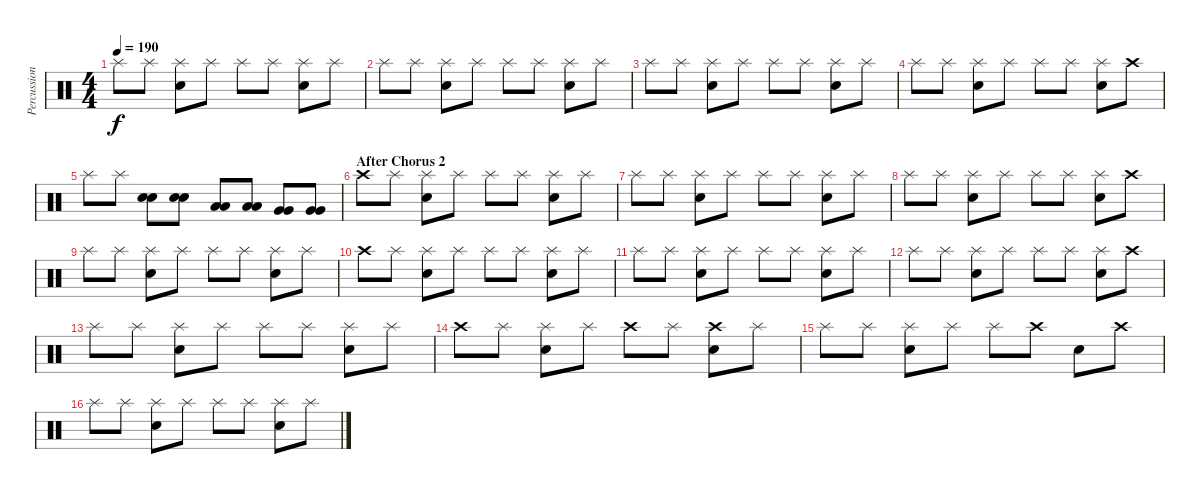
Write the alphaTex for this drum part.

\track ("Percussion" "Percussion") {instrument percussion}
\staff {score}
\articulation defaults
\ts (4 4)
\tempo 190
\clef neutral
\ks c "Splash (hit)".8{dy f} "Splash (hit)".8
("Splash (hit)" "Electric Snare (hit)").8 "Splash (hit)".8 "Splash (hit)".8 "Splash (hit)".8 ("Splash (hit)" "Electric Snare (hit)").8 "Splash (hit)".8 |
"Splash (hit)".8 "Splash (hit)".8 ("Splash (hit)" "Electric Snare (hit)").8 "Splash (hit)".8 "Splash (hit)".8 "Splash (hit)".8 ("Splash (hit)" "Electric Snare (hit)").8 "Splash (hit)".8 |
"Splash (hit)".8 "Splash (hit)".8 ("Splash (hit)" "Electric Snare (hit)").8 "Splash (hit)".8 "Splash (hit)".8 "Splash (hit)".8 ("Splash (hit)" "Electric Snare (hit)").8 "Splash (hit)".8 |
"Splash (hit)".8 "Splash (hit)".8 ("Splash (hit)" "Electric Snare (hit)").8 "Splash (hit)".8 "Splash (hit)".8 "Splash (hit)".8 ("Splash (hit)" "Electric Snare (hit)").8 "Crash high (hit)".8 |
"Splash (hit)".8 "Splash (hit)".8 ("Snare (hit) 2" "Snare (hit) 2").8 ("Snare (hit) 2" "Snare (hit) 2").8 ("Low Floor Tom (hit)" "Low Floor Tom (hit)").8 ("Low Floor Tom (hit)" "Low Floor Tom (hit)").8 ("Very Low Tom (hit)" "Very Low Tom (hit)").8 ("Very Low Tom (hit)" "Very Low Tom (hit)").8 |
\section ("" "After Chorus 2")
"Crash high (hit)".8 "Splash (hit)".8 ("Splash (hit)" "Electric Snare (hit)").8 "Splash (hit)".8 "Splash (hit)".8 "Splash (hit)".8 ("Splash (hit)" "Electric Snare (hit)").8 "Splash (hit)".8 |
"Splash (hit)".8 "Splash (hit)".8 ("Splash (hit)" "Electric Snare (hit)").8 "Splash (hit)".8 "Splash (hit)".8 "Splash (hit)".8 ("Splash (hit)" "Electric Snare (hit)").8 "Splash (hit)".8 |
"Splash (hit)".8 "Splash (hit)".8 ("Splash (hit)" "Electric Snare (hit)").8 "Splash (hit)".8 "Splash (hit)".8 "Splash (hit)".8 ("Splash (hit)" "Electric Snare (hit)").8 "Crash high (hit)".8 |
"Splash (hit)".8 "Splash (hit)".8 ("Splash (hit)" "Electric Snare (hit)").8 "Splash (hit)".8 "Splash (hit)".8 "Splash (hit)".8 ("Splash (hit)" "Electric Snare (hit)").8 "Splash (hit)".8 |
"Crash high (hit)".8 "Splash (hit)".8 ("Splash (hit)" "Electric Snare (hit)").8 "Splash (hit)".8 "Splash (hit)".8 "Splash (hit)".8 ("Splash (hit)" "Electric Snare (hit)").8 "Splash (hit)".8 |
"Splash (hit)".8 "Splash (hit)".8 ("Splash (hit)" "Electric Snare (hit)").8 "Splash (hit)".8 "Splash (hit)".8 "Splash (hit)".8 ("Splash (hit)" "Electric Snare (hit)").8 "Splash (hit)".8 |
"Splash (hit)".8 "Splash (hit)".8 ("Splash (hit)" "Electric Snare (hit)").8 "Splash (hit)".8 "Splash (hit)".8 "Splash (hit)".8 ("Splash (hit)" "Electric Snare (hit)").8 "Crash high (hit)".8 |
"Splash (hit)".8 "Splash (hit)".8 ("Splash (hit)" "Electric Snare (hit)").8 "Splash (hit)".8 "Splash (hit)".8 "Splash (hit)".8 ("Splash (hit)" "Electric Snare (hit)").8 "Splash (hit)".8 |
"Crash high (hit)".8 "Splash (hit)".8 ("Splash (hit)" "Electric Snare (hit)").8 "Splash (hit)".8 "Crash high (hit)".8 "Splash (hit)".8 ("Crash high (hit)" "Electric Snare (hit)").8 "Splash (hit)".8 |
"Splash (hit)".8 "Splash (hit)".8 ("Splash (hit)" "Electric Snare (hit)").8 "Splash (hit)".8 "Splash (hit)".8 "Crash high (hit)".8 "Electric Snare (hit)".8 "Crash high (hit)".8 |
"Splash (hit)".8 "Splash (hit)".8 ("Splash (hit)" "Electric Snare (hit)").8 "Splash (hit)".8 "Splash (hit)".8 "Splash (hit)".8 ("Splash (hit)" "Electric Snare (hit)").8 "Splash (hit)".8
